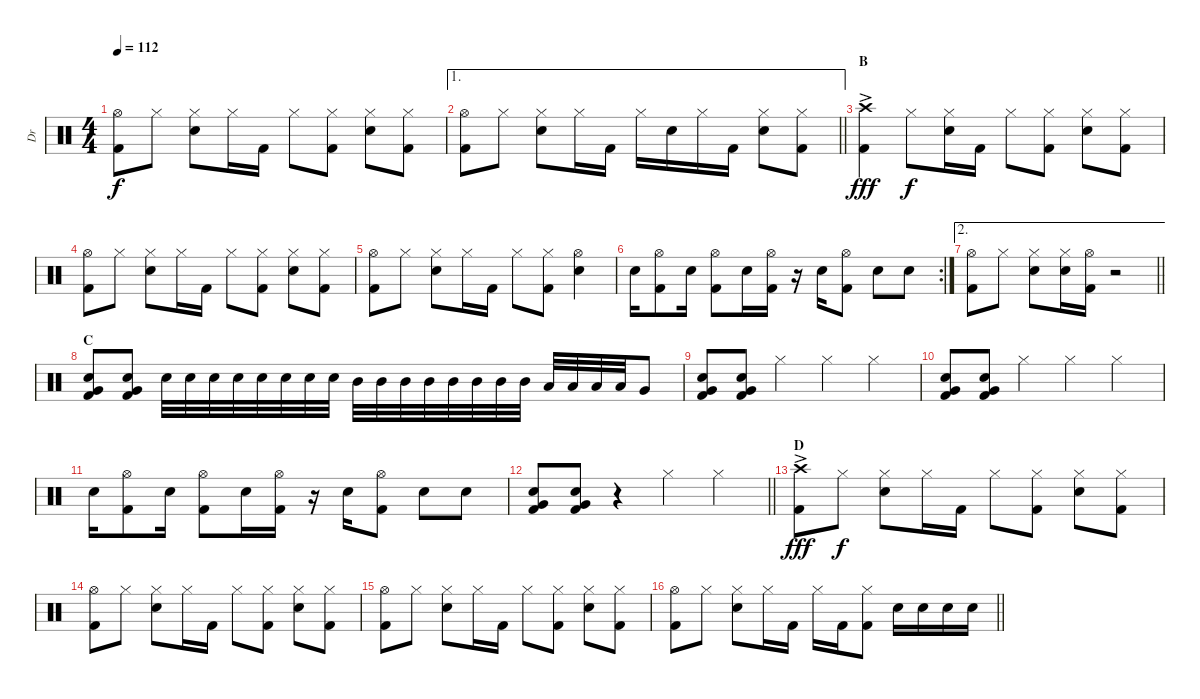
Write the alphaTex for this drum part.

\track ("Dr" "Dr") {instrument percussion}
\staff {score}
\articulation defaults
\ts (4 4)
\tempo 112
\clef neutral
\ks c
("Hi-Hat (open)" "Kick (hit) 2").8{dy f} "Hi-Hat (closed)".8 ("Hi-Hat (closed)" "Electric Snare (hit)").8 "Hi-Hat (closed)".16 "Kick (hit) 2".16 "Hi-Hat (closed)".8 ("Hi-Hat (closed)" "Kick (hit) 2").8 ("Hi-Hat (closed)" "Electric Snare (hit)").8 ("Hi-Hat (closed)" "Kick (hit) 2").8 |
\ae 1
\barLineRight lightlight
("Hi-Hat (open)" "Kick (hit) 2").8 "Hi-Hat (closed)".8 ("Hi-Hat (closed)" "Electric Snare (hit)").8 "Hi-Hat (closed)".16 "Kick (hit) 2".16 "Hi-Hat (closed)".16 "Electric Snare (hit)".16 "Hi-Hat (closed)".16 "Kick (hit) 2".16 ("Hi-Hat (closed)" "Electric Snare (hit)").8 ("Hi-Hat (closed)" "Kick (hit) 2").8 |
\section ("" "B")
("Crash high (hit)"{ac} "Kick (hit) 2"{ac}).4{dy fff} "Hi-Hat (closed)".8{dy f} ("Hi-Hat (closed)" "Electric Snare (hit)").16 "Kick (hit) 2".16 "Hi-Hat (closed)".8 ("Hi-Hat (closed)" "Kick (hit) 2").8 ("Hi-Hat (closed)" "Electric Snare (hit)").8 ("Hi-Hat (closed)" "Kick (hit) 2").8 |
("Hi-Hat (open)" "Kick (hit) 2").8 "Hi-Hat (closed)".8 ("Hi-Hat (closed)" "Electric Snare (hit)").8 "Hi-Hat (closed)".16 "Kick (hit) 2".16 "Hi-Hat (closed)".8 ("Hi-Hat (closed)" "Kick (hit) 2").8 ("Hi-Hat (closed)" "Electric Snare (hit)").8 ("Hi-Hat (closed)" "Kick (hit) 2").8 |
("Hi-Hat (open)" "Kick (hit) 2").8 "Hi-Hat (closed)".8 ("Hi-Hat (closed)" "Electric Snare (hit)").8 "Hi-Hat (closed)".16 "Kick (hit) 2".16 "Hi-Hat (closed)".8 ("Hi-Hat (closed)" "Kick (hit) 2").8 ("Hi-Hat (open)" "Electric Snare (hit)").4 |
\rc 2 "Electric Snare (hit)".16
("Hi-Hat (open)" "Kick (hit) 2").8 "Electric Snare (hit)".16 ("Hi-Hat (open)" "Kick (hit) 2").8 "Electric Snare (hit)".16 ("Hi-Hat (open)" "Kick (hit) 2").16 r.16 "Electric Snare (hit)".16 ("Hi-Hat (open)" "Kick (hit) 2").8 "Electric Snare (hit)".8 "Electric Snare (hit)".8 |
\ae 2
\barLineRight lightlight
("Hi-Hat (open)" "Kick (hit) 2").8 "Hi-Hat (closed)".8 ("Hi-Hat (closed)" "Electric Snare (hit)").8 ("Hi-Hat (closed)" "Electric Snare (hit)").16 ("Hi-Hat (open)" "Kick (hit) 2").16 r.2 |
\section ("" "C")
("Electric Snare (hit)" "Very Low Tom (hit)" "Kick (hit) 2").8 ("Electric Snare (hit)" "Very Low Tom (hit)" "Kick (hit) 2").8 "Electric Snare (hit)".32 "Electric Snare (hit)".32 "Electric Snare (hit)".32 "Electric Snare (hit)".32 "Electric Snare (hit)".32 "Electric Snare (hit)".32 "Electric Snare (hit)".32 "Electric Snare (hit)".32 "Mid Tom (hit)".32 "Mid Tom (hit)".32 "Mid Tom (hit)".32 "Mid Tom (hit)".32 "Mid Tom (hit)".32 "Mid Tom (hit)".32 "Mid Tom (hit)".32 "Mid Tom (hit)".32 "Low Tom (hit)".32 "Low Tom (hit)".32 "Low Tom (hit)".32 "Low Tom (hit)".32 "Very Low Tom (hit)".8 |
("Electric Snare (hit)" "Very Low Tom (hit)" "Kick (hit) 2").8 ("Electric Snare (hit)" "Very Low Tom (hit)" "Kick (hit) 2").8 "Hi-Hat (closed)".4 "Hi-Hat (closed)".4 "Hi-Hat (closed)".4 |
("Electric Snare (hit)" "Very Low Tom (hit)" "Kick (hit) 2").8 ("Electric Snare (hit)" "Very Low Tom (hit)" "Kick (hit) 2").8 "Hi-Hat (closed)".4 "Hi-Hat (closed)".4 "Hi-Hat (closed)".4 |
"Electric Snare (hit)".16 ("Hi-Hat (open)" "Kick (hit) 2").8 "Electric Snare (hit)".16 ("Hi-Hat (open)" "Kick (hit) 2").8 "Electric Snare (hit)".16 ("Hi-Hat (open)" "Kick (hit) 2").16 r.16 "Electric Snare (hit)".16 ("Hi-Hat (open)" "Kick (hit) 2").8 "Electric Snare (hit)".8 "Electric Snare (hit)".8 |
\barLineRight lightlight
("Electric Snare (hit)" "Very Low Tom (hit)" "Kick (hit) 2").8 ("Electric Snare (hit)" "Very Low Tom (hit)" "Kick (hit) 2").8 r.4 "Hi-Hat (closed)".4 "Hi-Hat (closed)".4 |
\section ("" "D")
("Crash high (hit)"{ac} "Kick (hit) 2"{ac}).8{dy fff} "Hi-Hat (closed)".8{dy f} ("Hi-Hat (closed)" "Electric Snare (hit)").8 "Hi-Hat (closed)".16 "Kick (hit) 2".16 "Hi-Hat (closed)".8 ("Hi-Hat (closed)" "Kick (hit) 2").8 ("Hi-Hat (closed)" "Electric Snare (hit)").8 ("Hi-Hat (closed)" "Kick (hit) 2").8 |
("Hi-Hat (open)" "Kick (hit) 2").8 "Hi-Hat (closed)".8 ("Hi-Hat (closed)" "Electric Snare (hit)").8 "Hi-Hat (closed)".16 "Kick (hit) 2".16 "Hi-Hat (closed)".8 ("Hi-Hat (closed)" "Kick (hit) 2").8 ("Hi-Hat (closed)" "Electric Snare (hit)").8 ("Hi-Hat (closed)" "Kick (hit) 2").8 |
("Hi-Hat (open)" "Kick (hit) 2").8 "Hi-Hat (closed)".8 ("Hi-Hat (closed)" "Electric Snare (hit)").8 "Hi-Hat (closed)".16 "Kick (hit) 2".16 "Hi-Hat (closed)".8 ("Hi-Hat (closed)" "Kick (hit) 2").8 ("Hi-Hat (closed)" "Electric Snare (hit)").8 ("Hi-Hat (closed)" "Kick (hit) 2").8 |
\barLineRight lightlight
("Hi-Hat (open)" "Kick (hit) 2").8 "Hi-Hat (closed)".8 ("Hi-Hat (closed)" "Electric Snare (hit)").8 "Hi-Hat (closed)".16 "Kick (hit) 2".16 "Hi-Hat (closed)".16 "Kick (hit) 2".16 ("Hi-Hat (closed)" "Kick (hit) 2").8 "Electric Snare (hit)".16 "Electric Snare (hit)".16 "Electric Snare (hit)".16 "Electric Snare (hit)".16
